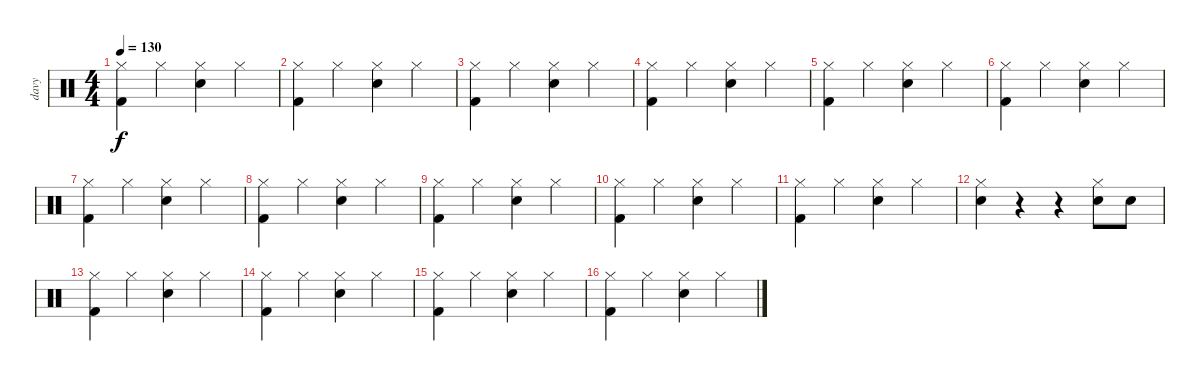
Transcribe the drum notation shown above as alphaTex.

\track ("davy" "davy") {instrument percussion}
\staff {score}
\articulation defaults
\ts (4 4)
\tempo 130
\clef neutral
\ks c
("Hi-Hat (closed)" "Kick (hit) 2").4{dy f} "Hi-Hat (closed)".4 ("Hi-Hat (closed)" "Snare (hit) 2").4 "Hi-Hat (closed)".4 |
("Hi-Hat (closed)" "Kick (hit) 2").4 "Hi-Hat (closed)".4 ("Hi-Hat (closed)" "Snare (hit) 2").4 "Hi-Hat (closed)".4 |
("Hi-Hat (closed)" "Kick (hit) 2").4 "Hi-Hat (closed)".4 ("Hi-Hat (closed)" "Snare (hit) 2").4 "Hi-Hat (closed)".4 |
("Hi-Hat (closed)" "Kick (hit) 2").4 "Hi-Hat (closed)".4 ("Hi-Hat (closed)" "Snare (hit) 2").4 "Hi-Hat (closed)".4 |
("Hi-Hat (closed)" "Kick (hit) 2").4 "Hi-Hat (closed)".4 ("Hi-Hat (closed)" "Snare (hit) 2").4 "Hi-Hat (closed)".4 |
("Hi-Hat (closed)" "Kick (hit) 2").4 "Hi-Hat (closed)".4 ("Hi-Hat (closed)" "Snare (hit) 2").4 "Hi-Hat (closed)".4 |
("Hi-Hat (closed)" "Kick (hit) 2").4 "Hi-Hat (closed)".4 ("Hi-Hat (closed)" "Snare (hit) 2").4 "Hi-Hat (closed)".4 |
("Hi-Hat (closed)" "Kick (hit) 2").4 "Hi-Hat (closed)".4 ("Hi-Hat (closed)" "Snare (hit) 2").4 "Hi-Hat (closed)".4 |
("Hi-Hat (closed)" "Kick (hit) 2").4 "Hi-Hat (closed)".4 ("Hi-Hat (closed)" "Snare (hit) 2").4 "Hi-Hat (closed)".4 |
("Hi-Hat (closed)" "Kick (hit) 2").4 "Hi-Hat (closed)".4 ("Hi-Hat (closed)" "Snare (hit) 2").4 "Hi-Hat (closed)".4 |
("Hi-Hat (closed)" "Kick (hit) 2").4 "Hi-Hat (closed)".4 ("Hi-Hat (closed)" "Snare (hit) 2").4 "Hi-Hat (closed)".4 |
("Hi-Hat (closed)" "Snare (hit) 2").4 r.4 r.4 ("Hi-Hat (closed)" "Snare (hit) 2").8 "Snare (hit) 2".8 |
("Hi-Hat (closed)" "Kick (hit) 2").4 "Hi-Hat (closed)".4 ("Hi-Hat (closed)" "Snare (hit) 2").4 "Hi-Hat (closed)".4 |
("Hi-Hat (closed)" "Kick (hit) 2").4 "Hi-Hat (closed)".4 ("Hi-Hat (closed)" "Snare (hit) 2").4 "Hi-Hat (closed)".4 |
("Hi-Hat (closed)" "Kick (hit) 2").4 "Hi-Hat (closed)".4 ("Hi-Hat (closed)" "Snare (hit) 2").4 "Hi-Hat (closed)".4 |
("Hi-Hat (closed)" "Kick (hit) 2").4 "Hi-Hat (closed)".4 ("Hi-Hat (closed)" "Snare (hit) 2").4 "Hi-Hat (closed)".4
